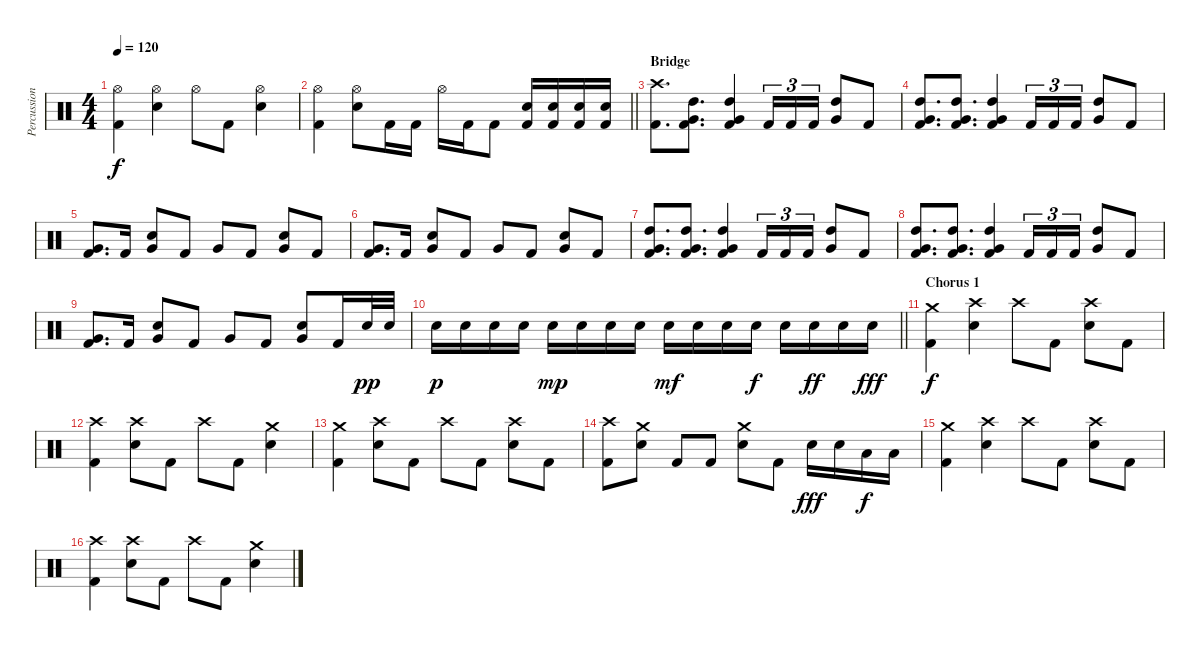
\track ("Percussion" "Percussion") {instrument percussion}
\staff {score}
\articulation defaults
\ts (4 4)
\tempo 120
\clef neutral
\ks c
("Hi-Hat (open)" "Kick (hit) 2").4{dy f} ("Hi-Hat (open)" "Snare (hit) 2").4 "Hi-Hat (open)".8 "Kick (hit) 2".8 ("Hi-Hat (open)" "Snare (hit) 2").4 |
\barLineRight lightlight
("Hi-Hat (open)" "Kick (hit) 2").4 ("Hi-Hat (open)" "Snare (hit) 2").8 "Kick (hit) 2".16 "Kick (hit) 2".16 "Hi-Hat (open)".16 "Kick (hit) 2".16 "Kick (hit) 2".8 ("Snare (hit) 2" "Kick (hit) 2").16 ("Snare (hit) 2" "Kick (hit) 2").16 ("Snare (hit) 2" "Kick (hit) 2").16 ("Snare (hit) 2" "Kick (hit) 2").16 |
\section ("" "Bridge")
("Crash high (hit)" "Kick (hit) 2").8{d} ("High Tom (hit)" "Very Low Tom (hit)" "Kick (hit) 2").8{d} ("High Tom (hit)" "Very Low Tom (hit)" "Kick (hit) 2").4 "Kick (hit) 2".16{tu (3 2)} "Kick (hit) 2".16{tu (3 2)} "Kick (hit) 2".16{tu (3 2)} ("High Tom (hit)" "Very Low Tom (hit)").8 "Kick (hit) 2".8 |
("High Tom (hit)" "Very Low Tom (hit)" "Kick (hit) 2").8{d} ("High Tom (hit)" "Very Low Tom (hit)" "Kick (hit) 2").8{d} ("High Tom (hit)" "Very Low Tom (hit)" "Kick (hit) 2").4 "Kick (hit) 2".16{tu (3 2)} "Kick (hit) 2".16{tu (3 2)} "Kick (hit) 2".16{tu (3 2)} ("High Tom (hit)" "Very Low Tom (hit)").8 "Kick (hit) 2".8 |
("Very Low Tom (hit)" "Kick (hit) 2").8{d} "Kick (hit) 2".16 ("Very Low Tom (hit)" "Snare (hit) 2").8 "Kick (hit) 2".8 "Very Low Tom (hit)".8 "Kick (hit) 2".8 ("Very Low Tom (hit)" "Snare (hit) 2").8 "Kick (hit) 2".8 |
("Very Low Tom (hit)" "Kick (hit) 2").8{d} "Kick (hit) 2".16 ("Very Low Tom (hit)" "Snare (hit) 2").8 "Kick (hit) 2".8 "Very Low Tom (hit)".8 "Kick (hit) 2".8 ("Very Low Tom (hit)" "Snare (hit) 2").8 "Kick (hit) 2".8 |
("High Tom (hit)" "Very Low Tom (hit)" "Kick (hit) 2").8{d} ("High Tom (hit)" "Very Low Tom (hit)" "Kick (hit) 2").8{d} ("High Tom (hit)" "Very Low Tom (hit)" "Kick (hit) 2").4 "Kick (hit) 2".16{tu (3 2)} "Kick (hit) 2".16{tu (3 2)} "Kick (hit) 2".16{tu (3 2)} ("High Tom (hit)" "Very Low Tom (hit)").8 "Kick (hit) 2".8 |
("High Tom (hit)" "Very Low Tom (hit)" "Kick (hit) 2").8{d} ("High Tom (hit)" "Very Low Tom (hit)" "Kick (hit) 2").8{d} ("High Tom (hit)" "Very Low Tom (hit)" "Kick (hit) 2").4 "Kick (hit) 2".16{tu (3 2)} "Kick (hit) 2".16{tu (3 2)} "Kick (hit) 2".16{tu (3 2)} ("High Tom (hit)" "Very Low Tom (hit)").8 "Kick (hit) 2".8 |
("Very Low Tom (hit)" "Kick (hit) 2").8{d} "Kick (hit) 2".16 ("Very Low Tom (hit)" "Snare (hit) 2").8 "Kick (hit) 2".8 "Very Low Tom (hit)".8 "Kick (hit) 2".8 ("Very Low Tom (hit)" "Snare (hit) 2").8 "Kick (hit) 2".16 "Snare (hit) 2".32{dy pp} "Snare (hit) 2".32 |
\barLineRight lightlight "Snare (hit) 2".16{dy p} "Snare (hit) 2".16 "Snare (hit) 2".16 "Snare (hit) 2".16 "Snare (hit) 2".16{dy mp} "Snare (hit) 2".16 "Snare (hit) 2".16 "Snare (hit) 2".16 "Snare (hit) 2".16{dy mf} "Snare (hit) 2".16 "Snare (hit) 2".16 "Snare (hit) 2".16{dy f} "Snare (hit) 2".16 "Snare (hit) 2".16{dy ff} "Snare (hit) 2".16 "Snare (hit) 2".16{dy fff}
|
\section ("" "Chorus 1")
("Crash medium (hit)" "Kick (hit) 2").4{dy f} ("Crash high (hit)" "Snare (hit) 2").4 "Crash high (hit)".8 "Kick (hit) 2".8 ("Crash high (hit)" "Snare (hit) 2").8 "Kick (hit) 2".8 |
("Crash high (hit)" "Kick (hit) 2").4 ("Crash high (hit)" "Snare (hit) 2").8 "Kick (hit) 2".8 "Crash high (hit)".8 "Kick (hit) 2".8 ("Crash medium (hit)" "Snare (hit) 2").4 |
("Crash medium (hit)" "Kick (hit) 2").4 ("Crash high (hit)" "Snare (hit) 2").8 "Kick (hit) 2".8 "Crash high (hit)".8 "Kick (hit) 2".8 ("Crash high (hit)" "Snare (hit) 2").8 "Kick (hit) 2".8 |
("Crash high (hit)" "Kick (hit) 2").8 ("Crash medium (hit)" "Snare (hit) 2").8 "Kick (hit) 2".8 "Kick (hit) 2".8 ("Crash medium (hit)" "Snare (hit) 2").8 "Kick (hit) 2".8 "Snare (hit) 2".16{dy fff} "Snare (hit) 2".16 "Low Tom (hit)".16{dy f} "Low Tom (hit)".16 |
("Crash medium (hit)" "Kick (hit) 2").4 ("Crash high (hit)" "Snare (hit) 2").4 "Crash high (hit)".8 "Kick (hit) 2".8 ("Crash high (hit)" "Snare (hit) 2").8 "Kick (hit) 2".8 |
("Crash high (hit)" "Kick (hit) 2").4 ("Crash high (hit)" "Snare (hit) 2").8 "Kick (hit) 2".8 "Crash high (hit)".8 "Kick (hit) 2".8 ("Crash medium (hit)" "Snare (hit) 2").4
